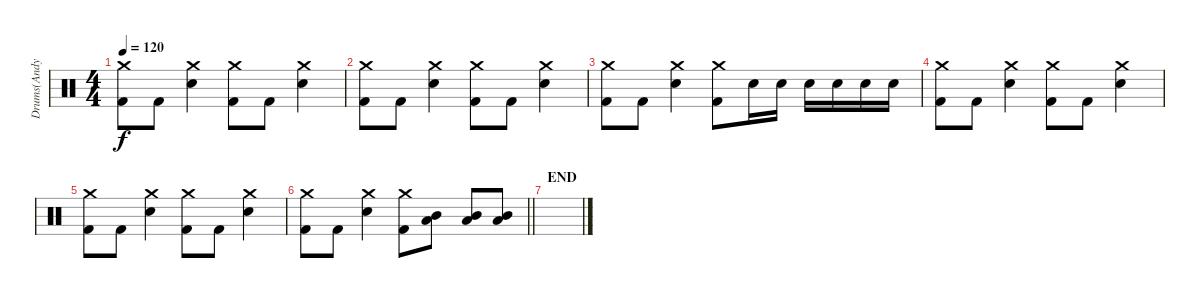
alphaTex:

\track ("Drums(Andy Hurley)" "Drums(Andy") {instrument percussion}
\staff {score}
\articulation defaults
\ts (4 4)
\tempo 120
\clef neutral
\ks c
("Crash medium (hit)" "Kick (hit) 2").8{dy f} "Kick (hit) 2".8 ("Crash medium (hit)" "Electric Snare (hit)").4 ("Crash medium (hit)" "Kick (hit) 2").8 "Kick (hit) 2".8 ("Crash medium (hit)" "Electric Snare (hit)").4 |
("Crash medium (hit)" "Kick (hit) 2").8 "Kick (hit) 2".8 ("Crash medium (hit)" "Electric Snare (hit)").4 ("Crash medium (hit)" "Kick (hit) 2").8 "Kick (hit) 2".8 ("Crash medium (hit)" "Electric Snare (hit)").4 |
("Crash medium (hit)" "Kick (hit) 2").8 "Kick (hit) 2".8 ("Crash medium (hit)" "Electric Snare (hit)").4 ("Crash medium (hit)" "Kick (hit) 2").8 "Snare (hit) 2".16 "Snare (hit) 2".16 "Snare (hit) 2".16 "Snare (hit) 2".16 "Snare (hit) 2".16 "Snare (hit) 2".16 |
("Crash medium (hit)" "Kick (hit) 2").8 "Kick (hit) 2".8 ("Crash medium (hit)" "Electric Snare (hit)").4 ("Crash medium (hit)" "Kick (hit) 2").8 "Kick (hit) 2".8 ("Crash medium (hit)" "Electric Snare (hit)").4 |
("Crash medium (hit)" "Kick (hit) 2").8 "Kick (hit) 2".8 ("Crash medium (hit)" "Electric Snare (hit)").4 ("Crash medium (hit)" "Kick (hit) 2").8 "Kick (hit) 2".8 ("Crash medium (hit)" "Electric Snare (hit)").4 |
\barLineRight lightlight
("Crash medium (hit)" "Kick (hit) 2").8 "Kick (hit) 2".8 ("Crash medium (hit)" "Electric Snare (hit)").4 ("Crash medium (hit)" "Kick (hit) 2").8 ("Mid Tom (hit)" "Low Tom (hit)").8 ("Mid Tom (hit)" "Low Tom (hit)").8 ("Mid Tom (hit)" "Low Tom (hit)").8 |
\section ("" "END")
